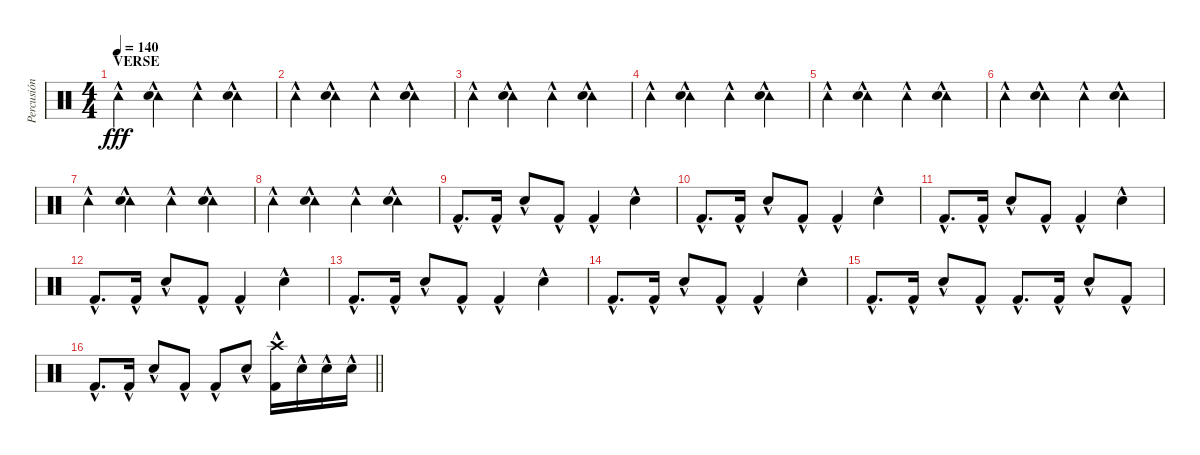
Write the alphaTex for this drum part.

\track ("Percusión" "Percusión") {instrument percussion}
\staff {score}
\articulation defaults
\ts (4 4)
\section ("" "VERSE")
\tempo 140
\clef neutral
\ks c "Tambourine (hit)"{hac}.4{dy fff}
("Tambourine (hit)"{hac} "Hand Clap (hit)"{hac}).4 "Tambourine (hit)"{hac}.4 ("Tambourine (hit)"{hac} "Hand Clap (hit)"{hac}).4 |
"Tambourine (hit)"{hac}.4 ("Tambourine (hit)"{hac} "Hand Clap (hit)"{hac}).4 "Tambourine (hit)"{hac}.4 ("Tambourine (hit)"{hac} "Hand Clap (hit)"{hac}).4 |
"Tambourine (hit)"{hac}.4 ("Tambourine (hit)"{hac} "Hand Clap (hit)"{hac}).4 "Tambourine (hit)"{hac}.4 ("Tambourine (hit)"{hac} "Hand Clap (hit)"{hac}).4 |
"Tambourine (hit)"{hac}.4 ("Tambourine (hit)"{hac} "Hand Clap (hit)"{hac}).4 "Tambourine (hit)"{hac}.4 ("Tambourine (hit)"{hac} "Hand Clap (hit)"{hac}).4 |
"Tambourine (hit)"{hac}.4 ("Tambourine (hit)"{hac} "Hand Clap (hit)"{hac}).4 "Tambourine (hit)"{hac}.4 ("Tambourine (hit)"{hac} "Hand Clap (hit)"{hac}).4 |
"Tambourine (hit)"{hac}.4 ("Tambourine (hit)"{hac} "Hand Clap (hit)"{hac}).4 "Tambourine (hit)"{hac}.4 ("Tambourine (hit)"{hac} "Hand Clap (hit)"{hac}).4 |
"Tambourine (hit)"{hac}.4 ("Tambourine (hit)"{hac} "Hand Clap (hit)"{hac}).4 "Tambourine (hit)"{hac}.4 ("Tambourine (hit)"{hac} "Hand Clap (hit)"{hac}).4 |
"Tambourine (hit)"{hac}.4 ("Tambourine (hit)"{hac} "Hand Clap (hit)"{hac}).4 "Tambourine (hit)"{hac}.4 ("Tambourine (hit)"{hac} "Hand Clap (hit)"{hac}).4 |
"Kick (hit) 2"{hac}.8{d} "Kick (hit) 2"{hac}.16 "Snare (hit) 2"{hac}.8 "Kick (hit) 2"{hac}.8 "Kick (hit) 2"{hac}.4 "Snare (hit) 2"{hac}.4 |
"Kick (hit) 2"{hac}.8{d} "Kick (hit) 2"{hac}.16 "Snare (hit) 2"{hac}.8 "Kick (hit) 2"{hac}.8 "Kick (hit) 2"{hac}.4 "Snare (hit) 2"{hac}.4 |
"Kick (hit) 2"{hac}.8{d} "Kick (hit) 2"{hac}.16 "Snare (hit) 2"{hac}.8 "Kick (hit) 2"{hac}.8 "Kick (hit) 2"{hac}.4 "Snare (hit) 2"{hac}.4 |
"Kick (hit) 2"{hac}.8{d} "Kick (hit) 2"{hac}.16 "Snare (hit) 2"{hac}.8 "Kick (hit) 2"{hac}.8 "Kick (hit) 2"{hac}.4 "Snare (hit) 2"{hac}.4 |
"Kick (hit) 2"{hac}.8{d} "Kick (hit) 2"{hac}.16 "Snare (hit) 2"{hac}.8 "Kick (hit) 2"{hac}.8 "Kick (hit) 2"{hac}.4 "Snare (hit) 2"{hac}.4 |
"Kick (hit) 2"{hac}.8{d} "Kick (hit) 2"{hac}.16 "Snare (hit) 2"{hac}.8 "Kick (hit) 2"{hac}.8 "Kick (hit) 2"{hac}.4 "Snare (hit) 2"{hac}.4 |
"Kick (hit) 2"{hac}.8{d} "Kick (hit) 2"{hac}.16 "Snare (hit) 2"{hac}.8 "Kick (hit) 2"{hac}.8 "Kick (hit) 2"{hac}.8{d} "Kick (hit) 2"{hac}.16 "Snare (hit) 2"{hac}.8 "Kick (hit) 2"{hac}.8 |
\barLineRight lightlight "Kick (hit) 2"{hac}.8{d} "Kick (hit) 2"{hac}.16 "Snare (hit) 2"{hac}.8 "Kick (hit) 2"{hac}.8 "Kick (hit) 2"{hac}.8 "Snare (hit) 2"{hac}.8
("Kick (hit) 2"{hac} "Crash high (hit)"{hac}).16 "Snare (hit) 2"{hac}.16 "Snare (hit) 2"{hac}.16 "Snare (hit) 2"{hac}.16
